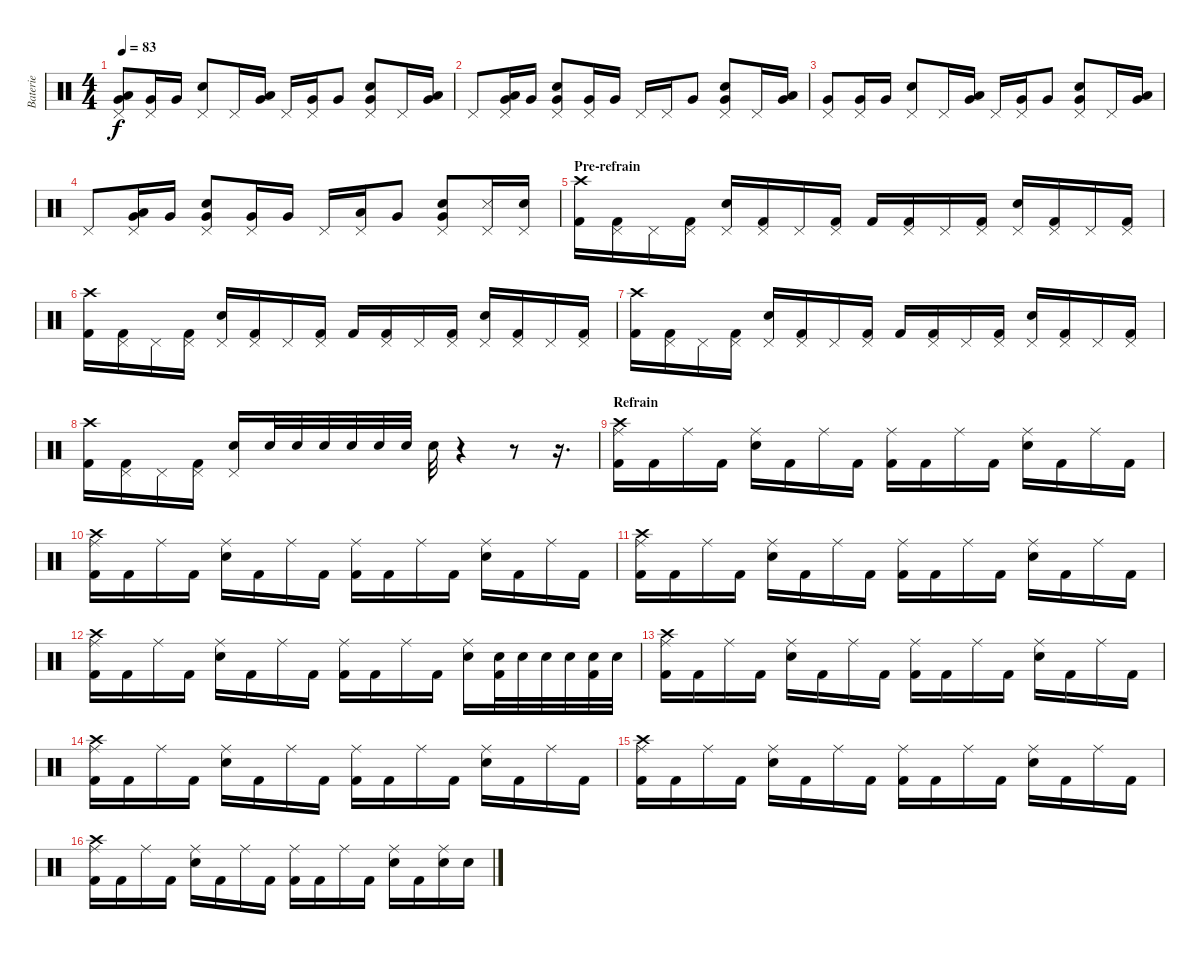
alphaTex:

\track ("Baterie" "Baterie") {instrument percussion}
\staff {score}
\articulation defaults
\ts (4 4)
\tempo 83
\clef neutral
\ks c
("Low Floor Tom (hit)" "Very Low Tom (hit)" "Pedal Hi-Hat (hit)").8{dy f} ("Very Low Tom (hit)" "Pedal Hi-Hat (hit)").16 "Very Low Tom (hit)".16 ("Snare (hit) 2" "Pedal Hi-Hat (hit)").8 "Pedal Hi-Hat (hit)".16 ("Low Floor Tom (hit)" "Very Low Tom (hit)").16 "Pedal Hi-Hat (hit)".16 ("Very Low Tom (hit)" "Pedal Hi-Hat (hit)").16 "Very Low Tom (hit)".8 ("Snare (hit) 2" "Very Low Tom (hit)" "Pedal Hi-Hat (hit)").8 "Pedal Hi-Hat (hit)".16 ("Low Floor Tom (hit)" "Very Low Tom (hit)").16 |
"Pedal Hi-Hat (hit)".8 ("Low Floor Tom (hit)" "Very Low Tom (hit)" "Pedal Hi-Hat (hit)").16 "Very Low Tom (hit)".16 ("Snare (hit) 2" "Very Low Tom (hit)" "Pedal Hi-Hat (hit)").8 ("Very Low Tom (hit)" "Pedal Hi-Hat (hit)").16 "Very Low Tom (hit)".16 "Pedal Hi-Hat (hit)".16 "Pedal Hi-Hat (hit)".16 "Very Low Tom (hit)".8 ("Snare (hit) 2" "Very Low Tom (hit)" "Pedal Hi-Hat (hit)").8 "Pedal Hi-Hat (hit)".16 ("Low Floor Tom (hit)" "Very Low Tom (hit)").16 |
("Very Low Tom (hit)" "Pedal Hi-Hat (hit)").8 ("Very Low Tom (hit)" "Pedal Hi-Hat (hit)").16 "Very Low Tom (hit)".16 ("Snare (hit) 2" "Pedal Hi-Hat (hit)").8 "Pedal Hi-Hat (hit)".16 ("Low Floor Tom (hit)" "Very Low Tom (hit)").16 "Pedal Hi-Hat (hit)".16 ("Very Low Tom (hit)" "Pedal Hi-Hat (hit)").16 "Very Low Tom (hit)".8 ("Snare (hit) 2" "Very Low Tom (hit)" "Pedal Hi-Hat (hit)").8 "Pedal Hi-Hat (hit)".16 ("Low Floor Tom (hit)" "Very Low Tom (hit)").16 |
"Pedal Hi-Hat (hit)".8 ("Low Floor Tom (hit)" "Very Low Tom (hit)" "Pedal Hi-Hat (hit)").16 "Very Low Tom (hit)".16 ("Snare (hit) 2" "Very Low Tom (hit)" "Pedal Hi-Hat (hit)").8 ("Very Low Tom (hit)" "Pedal Hi-Hat (hit)").16 "Very Low Tom (hit)".16 "Pedal Hi-Hat (hit)".16 ("Low Floor Tom (hit)" "Pedal Hi-Hat (hit)").16 "Very Low Tom (hit)".8 ("Snare (hit) 2" "Very Low Tom (hit)" "Pedal Hi-Hat (hit)").8 ("Snare (side stick) 3" "Pedal Hi-Hat (hit)").16 ("Snare (hit) 2" "Pedal Hi-Hat (hit)").16 |
\section ("" "Pre-refrain")
("Crash high (hit)" "Kick (hit) 2").16 ("Kick (hit) 2" "Pedal Hi-Hat (hit)").16 "Pedal Hi-Hat (hit)".16 ("Kick (hit) 2" "Pedal Hi-Hat (hit)").16 ("Snare (hit) 2" "Pedal Hi-Hat (hit)").16 ("Kick (hit) 2" "Pedal Hi-Hat (hit)").16 "Pedal Hi-Hat (hit)".16 ("Kick (hit) 2" "Pedal Hi-Hat (hit)").16 "Kick (hit) 2".16 ("Kick (hit) 2" "Pedal Hi-Hat (hit)").16 "Pedal Hi-Hat (hit)".16 ("Kick (hit) 2" "Pedal Hi-Hat (hit)").16 ("Snare (hit) 2" "Pedal Hi-Hat (hit)").16 ("Kick (hit) 2" "Pedal Hi-Hat (hit)").16 "Pedal Hi-Hat (hit)".16 ("Kick (hit) 2" "Pedal Hi-Hat (hit)").16 |
("Crash high (hit)" "Kick (hit) 2").16 ("Kick (hit) 2" "Pedal Hi-Hat (hit)").16 "Pedal Hi-Hat (hit)".16 ("Kick (hit) 2" "Pedal Hi-Hat (hit)").16 ("Snare (hit) 2" "Pedal Hi-Hat (hit)").16 ("Kick (hit) 2" "Pedal Hi-Hat (hit)").16 "Pedal Hi-Hat (hit)".16 ("Kick (hit) 2" "Pedal Hi-Hat (hit)").16 "Kick (hit) 2".16 ("Kick (hit) 2" "Pedal Hi-Hat (hit)").16 "Pedal Hi-Hat (hit)".16 ("Kick (hit) 2" "Pedal Hi-Hat (hit)").16 ("Snare (hit) 2" "Pedal Hi-Hat (hit)").16 ("Kick (hit) 2" "Pedal Hi-Hat (hit)").16 "Pedal Hi-Hat (hit)".16 ("Kick (hit) 2" "Pedal Hi-Hat (hit)").16 |
("Crash high (hit)" "Kick (hit) 2").16 ("Kick (hit) 2" "Pedal Hi-Hat (hit)").16 "Pedal Hi-Hat (hit)".16 ("Kick (hit) 2" "Pedal Hi-Hat (hit)").16 ("Snare (hit) 2" "Pedal Hi-Hat (hit)").16 ("Kick (hit) 2" "Pedal Hi-Hat (hit)").16 "Pedal Hi-Hat (hit)".16 ("Kick (hit) 2" "Pedal Hi-Hat (hit)").16 "Kick (hit) 2".16 ("Kick (hit) 2" "Pedal Hi-Hat (hit)").16 "Pedal Hi-Hat (hit)".16 ("Kick (hit) 2" "Pedal Hi-Hat (hit)").16 ("Snare (hit) 2" "Pedal Hi-Hat (hit)").16 ("Kick (hit) 2" "Pedal Hi-Hat (hit)").16 "Pedal Hi-Hat (hit)".16 ("Kick (hit) 2" "Pedal Hi-Hat (hit)").16 |
("Crash high (hit)" "Kick (hit) 2").16 ("Kick (hit) 2" "Pedal Hi-Hat (hit)").16 "Pedal Hi-Hat (hit)".16 ("Kick (hit) 2" "Pedal Hi-Hat (hit)").16 ("Snare (hit) 2" "Pedal Hi-Hat (hit)").16 "Snare (hit) 2".32 "Snare (hit) 2".32 "Snare (hit) 2".32 "Snare (hit) 2".32 "Snare (hit) 2".32 "Snare (hit) 2".32 "Snare (hit) 2".32 r.4 r.8 r.16{d} |
\section ("" "Refrain")
("Crash high (hit)" "Kick (hit) 2" "Ride (middle)").16 "Kick (hit) 2".16 "Ride (middle)".16 "Kick (hit) 2".16 ("Snare (hit) 2" "Ride (middle)").16 "Kick (hit) 2".16 "Ride (middle)".16 "Kick (hit) 2".16 ("Kick (hit) 2" "Ride (middle)").16 "Kick (hit) 2".16 "Ride (middle)".16 "Kick (hit) 2".16 ("Snare (hit) 2" "Ride (middle)").16 "Kick (hit) 2".16 "Ride (middle)".16 "Kick (hit) 2".16 |
("Crash high (hit)" "Kick (hit) 2" "Ride (middle)").16 "Kick (hit) 2".16 "Ride (middle)".16 "Kick (hit) 2".16 ("Snare (hit) 2" "Ride (middle)").16 "Kick (hit) 2".16 "Ride (middle)".16 "Kick (hit) 2".16 ("Kick (hit) 2" "Ride (middle)").16 "Kick (hit) 2".16 "Ride (middle)".16 "Kick (hit) 2".16 ("Snare (hit) 2" "Ride (middle)").16 "Kick (hit) 2".16 "Ride (middle)".16 "Kick (hit) 2".16 |
("Crash high (hit)" "Kick (hit) 2" "Ride (middle)").16 "Kick (hit) 2".16 "Ride (middle)".16 "Kick (hit) 2".16 ("Snare (hit) 2" "Ride (middle)").16 "Kick (hit) 2".16 "Ride (middle)".16 "Kick (hit) 2".16 ("Kick (hit) 2" "Ride (middle)").16 "Kick (hit) 2".16 "Ride (middle)".16 "Kick (hit) 2".16 ("Snare (hit) 2" "Ride (middle)").16 "Kick (hit) 2".16 "Ride (middle)".16 "Kick (hit) 2".16 |
("Crash high (hit)" "Kick (hit) 2" "Ride (middle)").16 "Kick (hit) 2".16 "Ride (middle)".16 "Kick (hit) 2".16 ("Snare (hit) 2" "Ride (middle)").16 "Kick (hit) 2".16 "Ride (middle)".16 "Kick (hit) 2".16 ("Kick (hit) 2" "Ride (middle)").16 "Kick (hit) 2".16 "Ride (middle)".16 "Kick (hit) 2".16 ("Snare (hit) 2" "Ride (middle)").16 ("Snare (hit) 2" "Kick (hit) 2").32 "Snare (hit) 2".32 "Snare (hit) 2".32 "Snare (hit) 2".32 ("Snare (hit) 2" "Kick (hit) 2").32 "Snare (hit) 2".32 |
("Crash high (hit)" "Kick (hit) 2" "Ride (middle)").16 "Kick (hit) 2".16 "Ride (middle)".16 "Kick (hit) 2".16 ("Snare (hit) 2" "Ride (middle)").16 "Kick (hit) 2".16 "Ride (middle)".16 "Kick (hit) 2".16 ("Kick (hit) 2" "Ride (middle)").16 "Kick (hit) 2".16 "Ride (middle)".16 "Kick (hit) 2".16 ("Snare (hit) 2" "Ride (middle)").16 "Kick (hit) 2".16 "Ride (middle)".16 "Kick (hit) 2".16 |
("Crash high (hit)" "Kick (hit) 2" "Ride (middle)").16 "Kick (hit) 2".16 "Ride (middle)".16 "Kick (hit) 2".16 ("Snare (hit) 2" "Ride (middle)").16 "Kick (hit) 2".16 "Ride (middle)".16 "Kick (hit) 2".16 ("Kick (hit) 2" "Ride (middle)").16 "Kick (hit) 2".16 "Ride (middle)".16 "Kick (hit) 2".16 ("Snare (hit) 2" "Ride (middle)").16 "Kick (hit) 2".16 "Ride (middle)".16 "Kick (hit) 2".16 |
("Crash high (hit)" "Kick (hit) 2" "Ride (middle)").16 "Kick (hit) 2".16 "Ride (middle)".16 "Kick (hit) 2".16 ("Snare (hit) 2" "Ride (middle)").16 "Kick (hit) 2".16 "Ride (middle)".16 "Kick (hit) 2".16 ("Kick (hit) 2" "Ride (middle)").16 "Kick (hit) 2".16 "Ride (middle)".16 "Kick (hit) 2".16 ("Snare (hit) 2" "Ride (middle)").16 "Kick (hit) 2".16 "Ride (middle)".16 "Kick (hit) 2".16 |
("Crash high (hit)" "Kick (hit) 2" "Ride (middle)").16 "Kick (hit) 2".16 "Ride (middle)".16 "Kick (hit) 2".16 ("Snare (hit) 2" "Ride (middle)").16 "Kick (hit) 2".16 "Ride (middle)".16 "Kick (hit) 2".16 ("Kick (hit) 2" "Ride (middle)").16 "Kick (hit) 2".16 "Ride (middle)".16 "Kick (hit) 2".16 ("Snare (hit) 2" "Ride (middle)").16 "Kick (hit) 2".16 ("Snare (hit) 2" "Ride (middle)").16 "Snare (hit) 2".16
